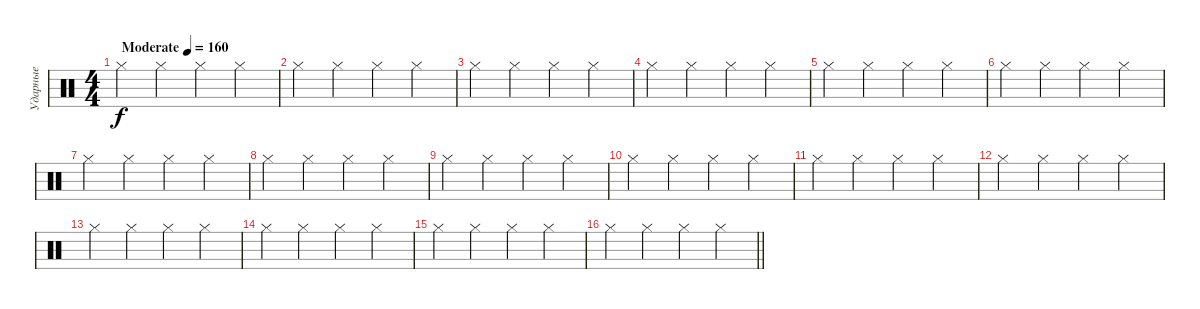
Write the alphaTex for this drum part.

\track ("Ударные" "Ударные") {instrument percussion}
\staff {score}
\articulation defaults
\ts (4 4)
\tempo (160 "Moderate")
\clef neutral
\ks c "Hi-Hat (closed)".4{dy f volume 7} "Hi-Hat (closed)".4 "Hi-Hat (closed)".4 "Hi-Hat (closed)".4
|
"Hi-Hat (closed)".4 "Hi-Hat (closed)".4 "Hi-Hat (closed)".4 "Hi-Hat (closed)".4 |
"Hi-Hat (closed)".4 "Hi-Hat (closed)".4 "Hi-Hat (closed)".4 "Hi-Hat (closed)".4 |
"Hi-Hat (closed)".4 "Hi-Hat (closed)".4 "Hi-Hat (closed)".4 "Hi-Hat (closed)".4 |
"Hi-Hat (closed)".4 "Hi-Hat (closed)".4 "Hi-Hat (closed)".4 "Hi-Hat (closed)".4 |
"Hi-Hat (closed)".4 "Hi-Hat (closed)".4 "Hi-Hat (closed)".4 "Hi-Hat (closed)".4 |
"Hi-Hat (closed)".4 "Hi-Hat (closed)".4 "Hi-Hat (closed)".4 "Hi-Hat (closed)".4 |
"Hi-Hat (closed)".4 "Hi-Hat (closed)".4 "Hi-Hat (closed)".4 "Hi-Hat (closed)".4 |
"Hi-Hat (closed)".4 "Hi-Hat (closed)".4 "Hi-Hat (closed)".4 "Hi-Hat (closed)".4 |
"Hi-Hat (closed)".4 "Hi-Hat (closed)".4 "Hi-Hat (closed)".4 "Hi-Hat (closed)".4 |
"Hi-Hat (closed)".4 "Hi-Hat (closed)".4 "Hi-Hat (closed)".4 "Hi-Hat (closed)".4 |
"Hi-Hat (closed)".4 "Hi-Hat (closed)".4 "Hi-Hat (closed)".4 "Hi-Hat (closed)".4 |
"Hi-Hat (closed)".4 "Hi-Hat (closed)".4 "Hi-Hat (closed)".4 "Hi-Hat (closed)".4 |
"Hi-Hat (closed)".4 "Hi-Hat (closed)".4 "Hi-Hat (closed)".4 "Hi-Hat (closed)".4 |
"Hi-Hat (closed)".4 "Hi-Hat (closed)".4 "Hi-Hat (closed)".4 "Hi-Hat (closed)".4 |
\barLineRight lightlight "Hi-Hat (closed)".4 "Hi-Hat (closed)".4 "Hi-Hat (closed)".4 "Hi-Hat (closed)".4
